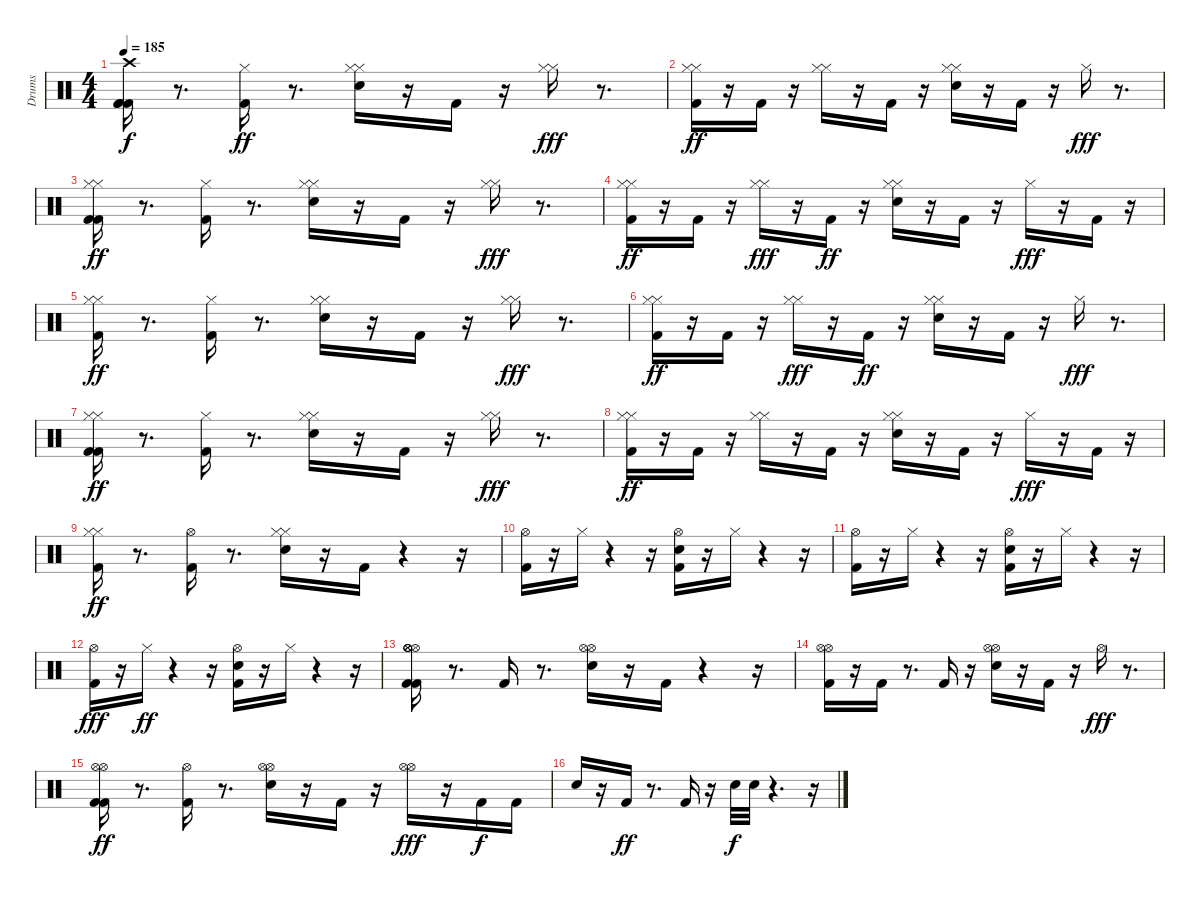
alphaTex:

\track ("Drums" "Drums") {instrument percussion}
\staff {score}
\articulation defaults
\ts (4 4)
\tempo 185
\clef neutral
\ks c
("Kick (hit) 2" "Kick (hit) 2" "Crash high (hit)" "Kick (hit) 2").16{dy f} r.8{d} ("Kick (hit) 2" "Hi-Hat (closed)").16{dy ff} r.8{d} ("Hi-Hat (closed)" "Electric Snare (hit)" "Hi-Hat (closed)").16 r.16 "Kick (hit) 2".16 r.16 ("Hi-Hat (closed)" "Hi-Hat (closed)").16{dy fff} r.8{d} |
("Hi-Hat (closed)" "Kick (hit) 2" "Hi-Hat (closed)").16{dy ff} r.16 "Kick (hit) 2".16 r.16 ("Hi-Hat (closed)" "Hi-Hat (closed)").16 r.16 "Kick (hit) 2".16 r.16 ("Hi-Hat (closed)" "Electric Snare (hit)" "Hi-Hat (closed)").16 r.16 "Kick (hit) 2".16 r.16 "Hi-Hat (closed)".16{dy fff} r.8{d} |
("Hi-Hat (closed)" "Hi-Hat (closed)" "Kick (hit) 2" "Kick (hit) 2").16{dy ff} r.8{d} ("Kick (hit) 2" "Hi-Hat (closed)").16 r.8{d} ("Hi-Hat (closed)" "Electric Snare (hit)" "Hi-Hat (closed)").16 r.16 "Kick (hit) 2".16 r.16 ("Hi-Hat (closed)" "Hi-Hat (closed)").16{dy fff} r.8{d} |
("Hi-Hat (closed)" "Kick (hit) 2" "Hi-Hat (closed)").16{dy ff} r.16 "Kick (hit) 2".16 r.16 ("Hi-Hat (closed)" "Hi-Hat (closed)").16{dy fff} r.16 "Kick (hit) 2".16{dy ff} r.16 ("Hi-Hat (closed)" "Electric Snare (hit)" "Hi-Hat (closed)").16 r.16 "Kick (hit) 2".16 r.16 "Hi-Hat (closed)".16{dy fff} r.16 "Kick (hit) 2".16 r.16 |
("Hi-Hat (closed)" "Kick (hit) 2" "Hi-Hat (closed)").16{dy ff} r.8{d} ("Kick (hit) 2" "Hi-Hat (closed)").16 r.8{d} ("Hi-Hat (closed)" "Electric Snare (hit)" "Hi-Hat (closed)").16 r.16 "Kick (hit) 2".16 r.16 ("Hi-Hat (closed)" "Hi-Hat (closed)").16{dy fff} r.8{d} |
("Hi-Hat (closed)" "Kick (hit) 2" "Hi-Hat (closed)").16{dy ff} r.16 "Kick (hit) 2".16 r.16 ("Hi-Hat (closed)" "Hi-Hat (closed)").16{dy fff} r.16 "Kick (hit) 2".16{dy ff} r.16 ("Hi-Hat (closed)" "Electric Snare (hit)" "Hi-Hat (closed)").16 r.16 "Kick (hit) 2".16 r.16 "Hi-Hat (closed)".16{dy fff} r.8{d} |
("Hi-Hat (closed)" "Hi-Hat (closed)" "Kick (hit) 2" "Kick (hit) 2").16{dy ff} r.8{d} ("Hi-Hat (closed)" "Kick (hit) 2").16 r.8{d} ("Hi-Hat (closed)" "Electric Snare (hit)" "Hi-Hat (closed)").16 r.16 "Kick (hit) 2".16 r.16 ("Hi-Hat (closed)" "Hi-Hat (closed)").16{dy fff} r.8{d} |
("Hi-Hat (closed)" "Kick (hit) 2" "Hi-Hat (closed)").16{dy ff} r.16 "Kick (hit) 2".16 r.16 ("Hi-Hat (closed)" "Hi-Hat (closed)").16 r.16 "Kick (hit) 2".16 r.16 ("Hi-Hat (closed)" "Electric Snare (hit)" "Hi-Hat (closed)").16 r.16 "Kick (hit) 2".16 r.16 "Hi-Hat (closed)".16{dy fff} r.16 "Kick (hit) 2".16 r.16 |
("Hi-Hat (closed)" "Kick (hit) 2" "Hi-Hat (closed)").16{dy ff} r.8{d} ("Kick (hit) 2" "Hi-Hat (open)").16 r.8{d} ("Hi-Hat (closed)" "Electric Snare (hit)" "Hi-Hat (closed)").16 r.16 "Kick (hit) 2".16 r.4 r.16 |
("Kick (hit) 2" "Hi-Hat (open)").16 r.16 "Hi-Hat (closed)".16 r.4 r.16 ("Kick (hit) 2" "Hi-Hat (open)" "Electric Snare (hit)").16 r.16 "Hi-Hat (closed)".16 r.4 r.16 |
("Kick (hit) 2" "Hi-Hat (open)").16 r.16 "Hi-Hat (closed)".16 r.4 r.16 ("Kick (hit) 2" "Hi-Hat (open)" "Electric Snare (hit)").16 r.16 "Hi-Hat (closed)".16 r.4 r.16 |
("Hi-Hat (open)" "Kick (hit) 2").16{dy fff} r.16 "Hi-Hat (closed)".16{dy ff} r.4 r.16 ("Kick (hit) 2" "Electric Snare (hit)" "Hi-Hat (open)").16 r.16 "Hi-Hat (closed)".16 r.4 r.16 |
("Kick (hit) 2" "Hi-Hat (open)" "Hi-Hat (open)" "Hi-Hat (open)" "Hi-Hat (open)" "Kick (hit) 2").16 r.8{d} "Kick (hit) 2".16 r.8{d} ("Hi-Hat (open)" "Hi-Hat (open)" "Electric Snare (hit)").16 r.16 "Kick (hit) 2".16 r.4 r.16 |
("Kick (hit) 2" "Hi-Hat (open)" "Hi-Hat (open)").16 r.16 "Kick (hit) 2".16 r.8{d} "Kick (hit) 2".16 r.16 ("Electric Snare (hit)" "Hi-Hat (open)" "Hi-Hat (open)").16 r.16 "Kick (hit) 2".16 r.16 "Hi-Hat (open)".16{dy fff} r.8{d} |
("Hi-Hat (open)" "Hi-Hat (open)" "Kick (hit) 2" "Kick (hit) 2").16{dy ff} r.8{d} ("Hi-Hat (open)" "Kick (hit) 2").16 r.8{d} ("Electric Snare (hit)" "Hi-Hat (open)" "Hi-Hat (open)").16 r.16 "Kick (hit) 2".16 r.16 ("Hi-Hat (open)" "Hi-Hat (open)").16{dy fff} r.16 "Kick (hit) 2".16{dy f} "Kick (hit) 2".16 |
"Electric Snare (hit)".16 r.16 "Kick (hit) 2".16{dy ff} r.8{d} "Kick (hit) 2".16 r.16 "Electric Snare (hit)".32{dy f} "Electric Snare (hit)".32 r.4{d} r.16
